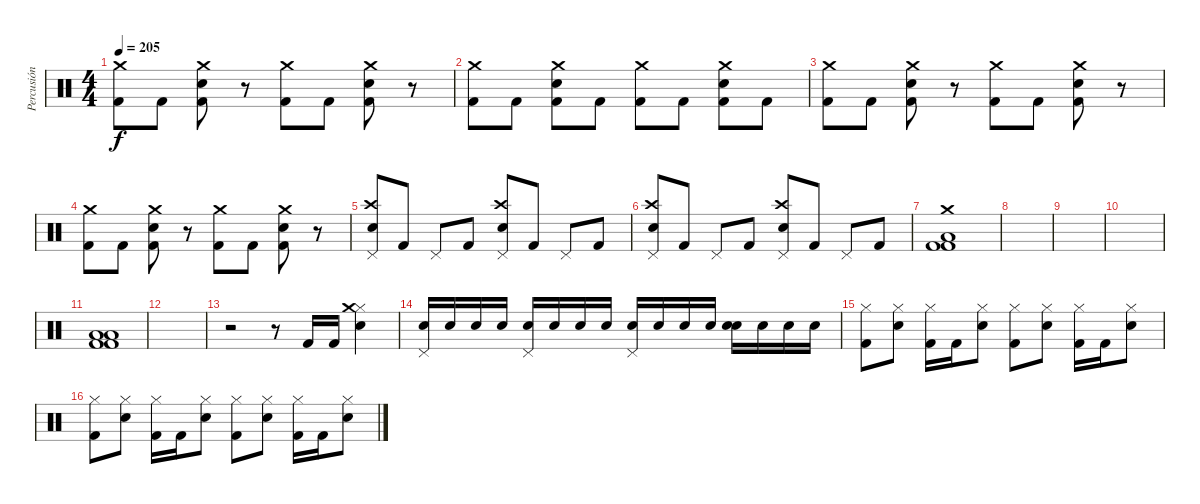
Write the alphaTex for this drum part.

\track ("Percusión" "Percusión") {instrument percussion}
\staff {score}
\articulation defaults
\ts (4 4)
\tempo 205
\clef neutral
\ks c
("Crash medium (hit)" "Kick (hit) 2").8{dy f} "Kick (hit) 2".8 ("Crash medium (hit)" "Snare (hit) 2" "Kick (hit) 2").8 r.8 ("Crash medium (hit)" "Kick (hit) 2").8 "Kick (hit) 2".8 ("Crash medium (hit)" "Snare (hit) 2" "Kick (hit) 2").8 r.8 |
("Crash medium (hit)" "Kick (hit) 2").8 "Kick (hit) 2".8 ("Crash medium (hit)" "Snare (hit) 2" "Kick (hit) 2").8 "Kick (hit) 2".8 ("Crash medium (hit)" "Kick (hit) 2").8 "Kick (hit) 2".8 ("Crash medium (hit)" "Snare (hit) 2" "Kick (hit) 2").8 "Kick (hit) 2".8 |
("Crash medium (hit)" "Kick (hit) 2").8 "Kick (hit) 2".8 ("Crash medium (hit)" "Snare (hit) 2" "Kick (hit) 2").8 r.8 ("Crash medium (hit)" "Kick (hit) 2").8 "Kick (hit) 2".8 ("Crash medium (hit)" "Snare (hit) 2" "Kick (hit) 2").8 r.8 |
("Crash medium (hit)" "Kick (hit) 2").8 "Kick (hit) 2".8 ("Crash medium (hit)" "Snare (hit) 2" "Kick (hit) 2").8 r.8 ("Crash medium (hit)" "Kick (hit) 2").8 "Kick (hit) 2".8 ("Crash medium (hit)" "Snare (hit) 2" "Kick (hit) 2").8 r.8 |
("Crash high (hit)" "Snare (hit) 2" "Pedal Hi-Hat (hit)").8 "Kick (hit) 2".8 "Pedal Hi-Hat (hit)".8 "Kick (hit) 2".8 ("Crash high (hit)" "Snare (hit) 2" "Pedal Hi-Hat (hit)").8 "Kick (hit) 2".8 "Pedal Hi-Hat (hit)".8 "Kick (hit) 2".8 |
("Crash high (hit)" "Snare (hit) 2" "Pedal Hi-Hat (hit)").8 "Kick (hit) 2".8 "Pedal Hi-Hat (hit)".8 "Kick (hit) 2".8 ("Crash high (hit)" "Snare (hit) 2" "Pedal Hi-Hat (hit)").8 "Kick (hit) 2".8 "Pedal Hi-Hat (hit)".8 "Kick (hit) 2".8 |
("Crash medium (hit)" "Low Tom (hit)" "Kick (hit) 2" "Kick (hit) 2").1 |
|
|
|
("Low Tom (hit)" "Low Tom (hit)" "Kick (hit) 2" "Kick (hit) 2").1 |
|
r.2 r.8 "Kick (hit) 2".16 "Kick (hit) 2".16 ("Hi-Hat (closed)" "Snare (hit) 2" "Crash medium (hit)").4 |
("Pedal Hi-Hat (hit)" "Snare (hit) 2").16 "Snare (hit) 2".16 "Snare (hit) 2".16 "Snare (hit) 2".16 ("Pedal Hi-Hat (hit)" "Snare (hit) 2").16 "Snare (hit) 2".16 "Snare (hit) 2".16 "Snare (hit) 2".16 ("Pedal Hi-Hat (hit)" "Snare (hit) 2").16 "Snare (hit) 2".16 "Snare (hit) 2".16 "Snare (hit) 2".16 ("Snare (hit)" "Snare (hit) 2").16 "Snare (hit) 2".16 "Snare (hit) 2".16 "Snare (hit) 2".16 |
("Hi-Hat (closed)" "Kick (hit) 2").8 ("Hi-Hat (closed)" "Snare (hit) 2").8 ("Hi-Hat (closed)" "Kick (hit) 2").16 "Kick (hit) 2".16 ("Hi-Hat (closed)" "Snare (hit) 2").8 ("Hi-Hat (closed)" "Kick (hit) 2").8 ("Hi-Hat (closed)" "Snare (hit) 2").8 ("Hi-Hat (closed)" "Kick (hit) 2").16 "Kick (hit) 2".16 ("Hi-Hat (closed)" "Snare (hit) 2").8 |
("Hi-Hat (closed)" "Kick (hit) 2").8 ("Hi-Hat (closed)" "Snare (hit) 2").8 ("Hi-Hat (closed)" "Kick (hit) 2").16 "Kick (hit) 2".16 ("Hi-Hat (closed)" "Snare (hit) 2").8 ("Hi-Hat (closed)" "Kick (hit) 2").8 ("Hi-Hat (closed)" "Snare (hit) 2").8 ("Hi-Hat (closed)" "Kick (hit) 2").16 "Kick (hit) 2".16 ("Hi-Hat (closed)" "Snare (hit) 2").8
